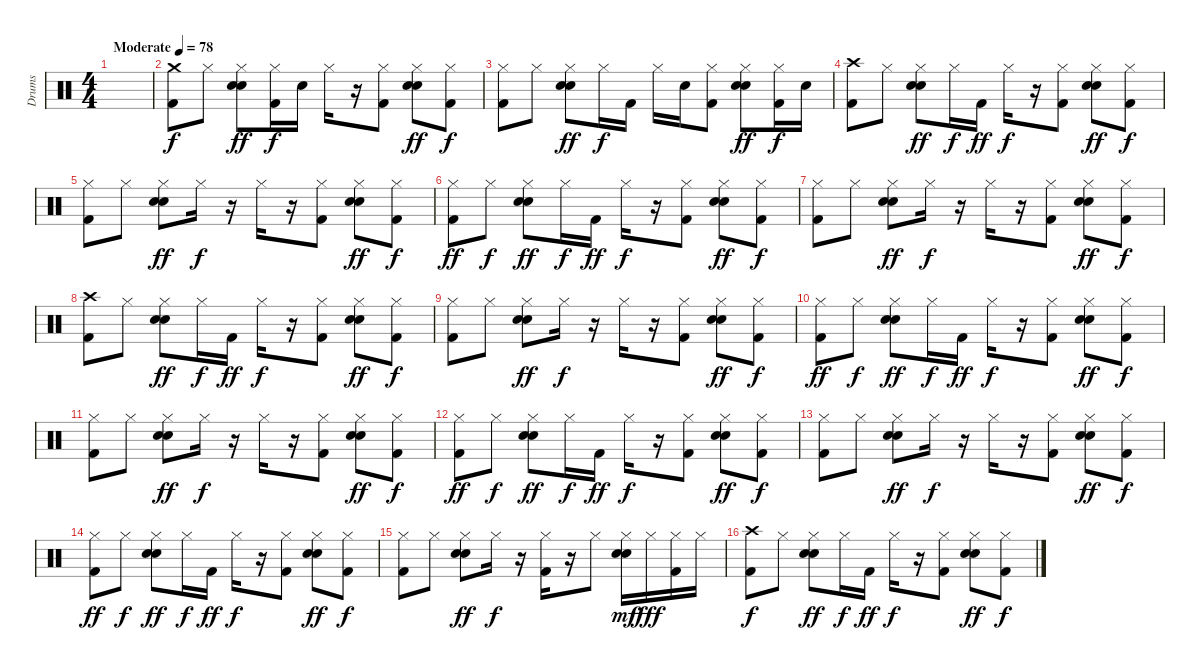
\track ("Drums" "Drums") {instrument percussion}
\staff {score}
\articulation defaults
\ts (4 4)
\tempo (78 "Moderate")
\clef neutral
\ks c
|
("Crash medium (hit)" "Kick (hit) 2").8 "Hi-Hat (closed)".8 ("Electric Snare (hit)" "Hi-Hat (closed)" "Snare (hit) 2").8{dy ff} ("Hi-Hat (closed)" "Kick (hit) 2").16{dy f} "Snare (hit) 2".16 "Hi-Hat (closed)".16 r.16 ("Hi-Hat (closed)" "Kick (hit) 2").8 ("Electric Snare (hit)" "Hi-Hat (closed)" "Snare (hit) 2").8{dy ff} ("Hi-Hat (closed)" "Kick (hit) 2").8{dy f} |
("Hi-Hat (closed)" "Kick (hit) 2").8 "Hi-Hat (closed)".8 ("Electric Snare (hit)" "Hi-Hat (closed)" "Snare (hit) 2").8{dy ff} "Hi-Hat (closed)".16{dy f} "Kick (hit) 2".16 "Hi-Hat (closed)".16 "Snare (hit) 2".16 ("Hi-Hat (closed)" "Kick (hit) 2").8 ("Electric Snare (hit)" "Hi-Hat (closed)" "Snare (hit) 2").8{dy ff} ("Hi-Hat (closed)" "Kick (hit) 2").16{dy f} "Snare (hit) 2".16 |
("Crash high (hit)" "Kick (hit) 2").8 "Hi-Hat (closed)".8 ("Electric Snare (hit)" "Hi-Hat (closed)" "Snare (hit) 2").8{dy ff} "Hi-Hat (closed)".16{dy f} "Kick (hit) 2".16{dy ff} "Hi-Hat (closed)".16{dy f} r.16 ("Hi-Hat (closed)" "Kick (hit) 2").8 ("Electric Snare (hit)" "Hi-Hat (closed)" "Snare (hit) 2").8{dy ff} ("Hi-Hat (closed)" "Kick (hit) 2").8{dy f} |
("Hi-Hat (closed)" "Kick (hit) 2").8 "Hi-Hat (closed)".8 ("Electric Snare (hit)" "Hi-Hat (closed)" "Snare (hit) 2").8{dy ff} "Hi-Hat (closed)".16{dy f} r.16 "Hi-Hat (closed)".16 r.16 ("Hi-Hat (closed)" "Kick (hit) 2").8 ("Electric Snare (hit)" "Hi-Hat (closed)" "Snare (hit) 2").8{dy ff} ("Hi-Hat (closed)" "Kick (hit) 2").8{dy f} |
("Hi-Hat (closed)" "Kick (hit) 2").8{dy ff} "Hi-Hat (closed)".8{dy f} ("Electric Snare (hit)" "Hi-Hat (closed)" "Snare (hit) 2").8{dy ff} "Hi-Hat (closed)".16{dy f} "Kick (hit) 2".16{dy ff} "Hi-Hat (closed)".16{dy f} r.16 ("Hi-Hat (closed)" "Kick (hit) 2").8 ("Electric Snare (hit)" "Hi-Hat (closed)" "Snare (hit) 2").8{dy ff} ("Hi-Hat (closed)" "Kick (hit) 2").8{dy f} |
("Hi-Hat (closed)" "Kick (hit) 2").8 "Hi-Hat (closed)".8 ("Electric Snare (hit)" "Hi-Hat (closed)" "Snare (hit) 2").8{dy ff} "Hi-Hat (closed)".16{dy f} r.16 "Hi-Hat (closed)".16 r.16 ("Hi-Hat (closed)" "Kick (hit) 2").8 ("Electric Snare (hit)" "Hi-Hat (closed)" "Snare (hit) 2").8{dy ff} ("Hi-Hat (closed)" "Kick (hit) 2").8{dy f} |
("Crash high (hit)" "Kick (hit) 2").8 "Hi-Hat (closed)".8 ("Electric Snare (hit)" "Hi-Hat (closed)" "Snare (hit) 2").8{dy ff} "Hi-Hat (closed)".16{dy f} "Kick (hit) 2".16{dy ff} "Hi-Hat (closed)".16{dy f} r.16 ("Hi-Hat (closed)" "Kick (hit) 2").8 ("Electric Snare (hit)" "Hi-Hat (closed)" "Snare (hit) 2").8{dy ff} ("Hi-Hat (closed)" "Kick (hit) 2").8{dy f} |
("Hi-Hat (closed)" "Kick (hit) 2").8 "Hi-Hat (closed)".8 ("Electric Snare (hit)" "Hi-Hat (closed)" "Snare (hit) 2").8{dy ff} "Hi-Hat (closed)".16{dy f} r.16 "Hi-Hat (closed)".16 r.16 ("Hi-Hat (closed)" "Kick (hit) 2").8 ("Electric Snare (hit)" "Hi-Hat (closed)" "Snare (hit) 2").8{dy ff} ("Hi-Hat (closed)" "Kick (hit) 2").8{dy f} |
("Hi-Hat (closed)" "Kick (hit) 2").8{dy ff} "Hi-Hat (closed)".8{dy f} ("Electric Snare (hit)" "Hi-Hat (closed)" "Snare (hit) 2").8{dy ff} "Hi-Hat (closed)".16{dy f} "Kick (hit) 2".16{dy ff} "Hi-Hat (closed)".16{dy f} r.16 ("Hi-Hat (closed)" "Kick (hit) 2").8 ("Electric Snare (hit)" "Hi-Hat (closed)" "Snare (hit) 2").8{dy ff} ("Hi-Hat (closed)" "Kick (hit) 2").8{dy f} |
("Hi-Hat (closed)" "Kick (hit) 2").8 "Hi-Hat (closed)".8 ("Electric Snare (hit)" "Hi-Hat (closed)" "Snare (hit) 2").8{dy ff} "Hi-Hat (closed)".16{dy f} r.16 "Hi-Hat (closed)".16 r.16 ("Hi-Hat (closed)" "Kick (hit) 2").8 ("Electric Snare (hit)" "Hi-Hat (closed)" "Snare (hit) 2").8{dy ff} ("Hi-Hat (closed)" "Kick (hit) 2").8{dy f} |
("Hi-Hat (closed)" "Kick (hit) 2").8{dy ff} "Hi-Hat (closed)".8{dy f} ("Electric Snare (hit)" "Hi-Hat (closed)" "Snare (hit) 2").8{dy ff} "Hi-Hat (closed)".16{dy f} "Kick (hit) 2".16{dy ff} "Hi-Hat (closed)".16{dy f} r.16 ("Hi-Hat (closed)" "Kick (hit) 2").8 ("Electric Snare (hit)" "Hi-Hat (closed)" "Snare (hit) 2").8{dy ff} ("Hi-Hat (closed)" "Kick (hit) 2").8{dy f} |
("Hi-Hat (closed)" "Kick (hit) 2").8 "Hi-Hat (closed)".8 ("Electric Snare (hit)" "Hi-Hat (closed)" "Snare (hit) 2").8{dy ff} "Hi-Hat (closed)".16{dy f} r.16 "Hi-Hat (closed)".16 r.16 ("Hi-Hat (closed)" "Kick (hit) 2").8 ("Electric Snare (hit)" "Hi-Hat (closed)" "Snare (hit) 2").8{dy ff} ("Hi-Hat (closed)" "Kick (hit) 2").8{dy f} |
("Hi-Hat (closed)" "Kick (hit) 2").8{dy ff} "Hi-Hat (closed)".8{dy f} ("Electric Snare (hit)" "Hi-Hat (closed)" "Snare (hit) 2").8{dy ff} "Hi-Hat (closed)".16{dy f} "Kick (hit) 2".16{dy ff} "Hi-Hat (closed)".16{dy f} r.16 ("Hi-Hat (closed)" "Kick (hit) 2").8 ("Electric Snare (hit)" "Hi-Hat (closed)" "Snare (hit) 2").8{dy ff} ("Hi-Hat (closed)" "Kick (hit) 2").8{dy f} |
("Hi-Hat (closed)" "Kick (hit) 2").8 "Hi-Hat (closed)".8 ("Electric Snare (hit)" "Hi-Hat (closed)" "Snare (hit) 2").8{dy ff} "Hi-Hat (closed)".16{dy f} r.16 ("Hi-Hat (closed)" "Kick (hit) 2").16 r.16 "Hi-Hat (closed)".8 ("Electric Snare (hit)" "Hi-Hat (closed)" "Snare (hit) 2").16{dy mf} "Hi-Hat (closed)".16{dy fff} ("Hi-Hat (closed)" "Kick (hit) 2").16 "Hi-Hat (closed)".16 |
("Crash high (hit)" "Kick (hit) 2").8{dy f} "Hi-Hat (closed)".8 ("Electric Snare (hit)" "Hi-Hat (closed)" "Snare (hit) 2").8{dy ff} "Hi-Hat (closed)".16{dy f} "Kick (hit) 2".16{dy ff} "Hi-Hat (closed)".16{dy f} r.16 ("Hi-Hat (closed)" "Kick (hit) 2").8 ("Electric Snare (hit)" "Hi-Hat (closed)" "Snare (hit) 2").8{dy ff} ("Hi-Hat (closed)" "Kick (hit) 2").8{dy f}
